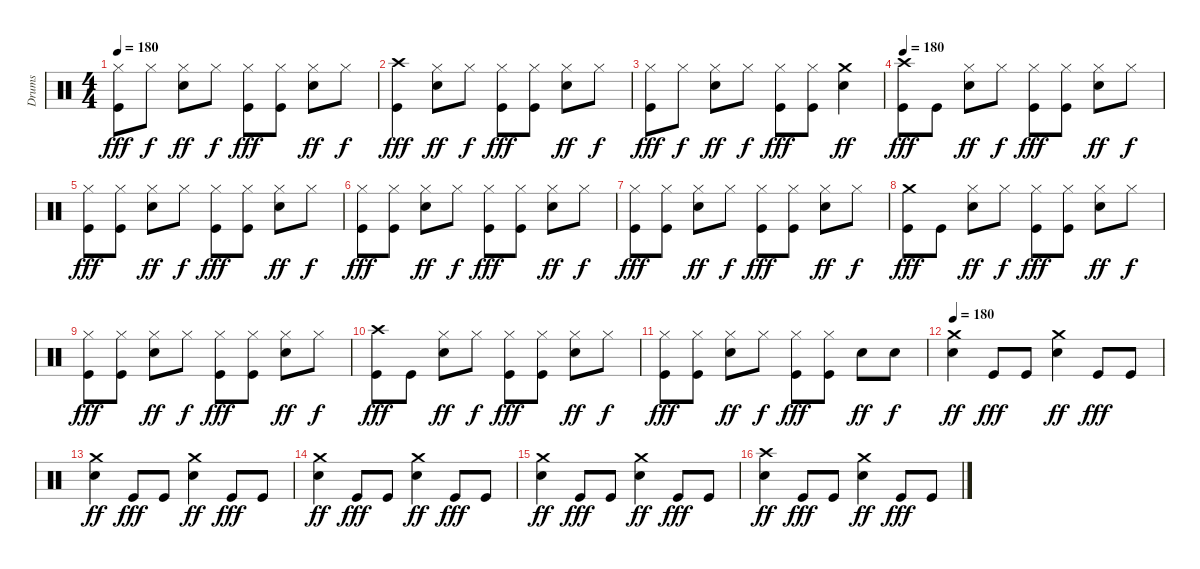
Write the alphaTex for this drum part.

\track ("Drums" "Drums") {instrument percussion}
\staff {score}
\articulation defaults
\ts (4 4)
\tempo 180
\clef neutral
\ks aminor
("Hi-Hat (closed)" "Kick (hit)").8{dy fff} "Hi-Hat (closed)".8{dy f} ("Hi-Hat (closed)" "Snare (hit) 2").8{dy ff} "Hi-Hat (closed)".8{dy f} ("Hi-Hat (closed)" "Kick (hit)").8{dy fff} ("Hi-Hat (closed)" "Kick (hit)").8 ("Hi-Hat (closed)" "Snare (hit) 2").8{dy ff} "Hi-Hat (closed)".8{dy f} |
("Crash high (hit)" "Kick (hit)").4{dy fff} ("Hi-Hat (closed)" "Snare (hit) 2").8{dy ff} "Hi-Hat (closed)".8{dy f} ("Hi-Hat (closed)" "Kick (hit)").8{dy fff} ("Hi-Hat (closed)" "Kick (hit)").8 ("Hi-Hat (closed)" "Snare (hit) 2").8{dy ff} "Hi-Hat (closed)".8{dy f} |
("Hi-Hat (closed)" "Kick (hit)").8{dy fff} "Hi-Hat (closed)".8{dy f} ("Hi-Hat (closed)" "Snare (hit) 2").8{dy ff} "Hi-Hat (closed)".8{dy f} ("Hi-Hat (closed)" "Kick (hit)").8{dy fff} ("Hi-Hat (closed)" "Kick (hit)").8 ("Crash medium (hit)" "Snare (hit) 2").4{dy ff} |
\tempo 180
("Crash high (hit)" "Kick (hit)").8{dy fff} "Kick (hit)".8 ("Hi-Hat (closed)" "Snare (hit) 2").8{dy ff} "Hi-Hat (closed)".8{dy f} ("Hi-Hat (closed)" "Kick (hit)").8{dy fff} ("Hi-Hat (closed)" "Kick (hit)").8 ("Hi-Hat (closed)" "Snare (hit) 2").8{dy ff} "Hi-Hat (closed)".8{dy f} |
("Hi-Hat (closed)" "Kick (hit)").8{dy fff} ("Hi-Hat (closed)" "Kick (hit)").8 ("Hi-Hat (closed)" "Snare (hit) 2").8{dy ff} "Hi-Hat (closed)".8{dy f} ("Hi-Hat (closed)" "Kick (hit)").8{dy fff} ("Hi-Hat (closed)" "Kick (hit)").8 ("Hi-Hat (closed)" "Snare (hit) 2").8{dy ff} "Hi-Hat (closed)".8{dy f} |
("Hi-Hat (closed)" "Kick (hit)").8{dy fff} ("Hi-Hat (closed)" "Kick (hit)").8 ("Hi-Hat (closed)" "Snare (hit) 2").8{dy ff} "Hi-Hat (closed)".8{dy f} ("Hi-Hat (closed)" "Kick (hit)").8{dy fff} ("Hi-Hat (closed)" "Kick (hit)").8 ("Hi-Hat (closed)" "Snare (hit) 2").8{dy ff} "Hi-Hat (closed)".8{dy f} |
("Hi-Hat (closed)" "Kick (hit)").8{dy fff} ("Hi-Hat (closed)" "Kick (hit)").8 ("Hi-Hat (closed)" "Snare (hit) 2").8{dy ff} "Hi-Hat (closed)".8{dy f} ("Hi-Hat (closed)" "Kick (hit)").8{dy fff} ("Hi-Hat (closed)" "Kick (hit)").8 ("Hi-Hat (closed)" "Snare (hit) 2").8{dy ff} "Hi-Hat (closed)".8{dy f} |
("Crash medium (hit)" "Kick (hit)").8{dy fff} "Kick (hit)".8 ("Hi-Hat (closed)" "Snare (hit) 2").8{dy ff} "Hi-Hat (closed)".8{dy f} ("Hi-Hat (closed)" "Kick (hit)").8{dy fff} ("Hi-Hat (closed)" "Kick (hit)").8 ("Hi-Hat (closed)" "Snare (hit) 2").8{dy ff} "Hi-Hat (closed)".8{dy f} |
("Hi-Hat (closed)" "Kick (hit)").8{dy fff} ("Hi-Hat (closed)" "Kick (hit)").8 ("Hi-Hat (closed)" "Snare (hit) 2").8{dy ff} "Hi-Hat (closed)".8{dy f} ("Hi-Hat (closed)" "Kick (hit)").8{dy fff} ("Hi-Hat (closed)" "Kick (hit)").8 ("Hi-Hat (closed)" "Snare (hit) 2").8{dy ff} "Hi-Hat (closed)".8{dy f} |
("Crash high (hit)" "Kick (hit)").8{dy fff} "Kick (hit)".8 ("Hi-Hat (closed)" "Snare (hit) 2").8{dy ff} "Hi-Hat (closed)".8{dy f} ("Hi-Hat (closed)" "Kick (hit)").8{dy fff} ("Hi-Hat (closed)" "Kick (hit)").8 ("Hi-Hat (closed)" "Snare (hit) 2").8{dy ff} "Hi-Hat (closed)".8{dy f} |
("Hi-Hat (closed)" "Kick (hit)").8{dy fff} ("Hi-Hat (closed)" "Kick (hit)").8 ("Hi-Hat (closed)" "Snare (hit) 2").8{dy ff} "Hi-Hat (closed)".8{dy f} ("Hi-Hat (closed)" "Kick (hit)").8{dy fff} ("Hi-Hat (closed)" "Kick (hit)").8 "Snare (hit) 2".8{dy ff} "Snare (hit) 2".8{dy f} |
\tempo 180
("Crash medium (hit)" "Snare (hit) 2").4{dy ff} "Kick (hit)".8{dy fff} "Kick (hit)".8 ("Crash medium (hit)" "Snare (hit) 2").4{dy ff} "Kick (hit)".8{dy fff} "Kick (hit)".8 |
("Crash medium (hit)" "Snare (hit) 2").4{dy ff} "Kick (hit)".8{dy fff} "Kick (hit)".8 ("Crash medium (hit)" "Snare (hit) 2").4{dy ff} "Kick (hit)".8{dy fff} "Kick (hit)".8 |
("Crash medium (hit)" "Snare (hit) 2").4{dy ff} "Kick (hit)".8{dy fff} "Kick (hit)".8 ("Crash medium (hit)" "Snare (hit) 2").4{dy ff} "Kick (hit)".8{dy fff} "Kick (hit)".8 |
("Crash medium (hit)" "Snare (hit) 2").4{dy ff} "Kick (hit)".8{dy fff} "Kick (hit)".8 ("Crash medium (hit)" "Snare (hit) 2").4{dy ff} "Kick (hit)".8{dy fff} "Kick (hit)".8 |
("Crash high (hit)" "Snare (hit) 2").4{dy ff} "Kick (hit)".8{dy fff} "Kick (hit)".8 ("Crash medium (hit)" "Snare (hit) 2").4{dy ff} "Kick (hit)".8{dy fff} "Kick (hit)".8
